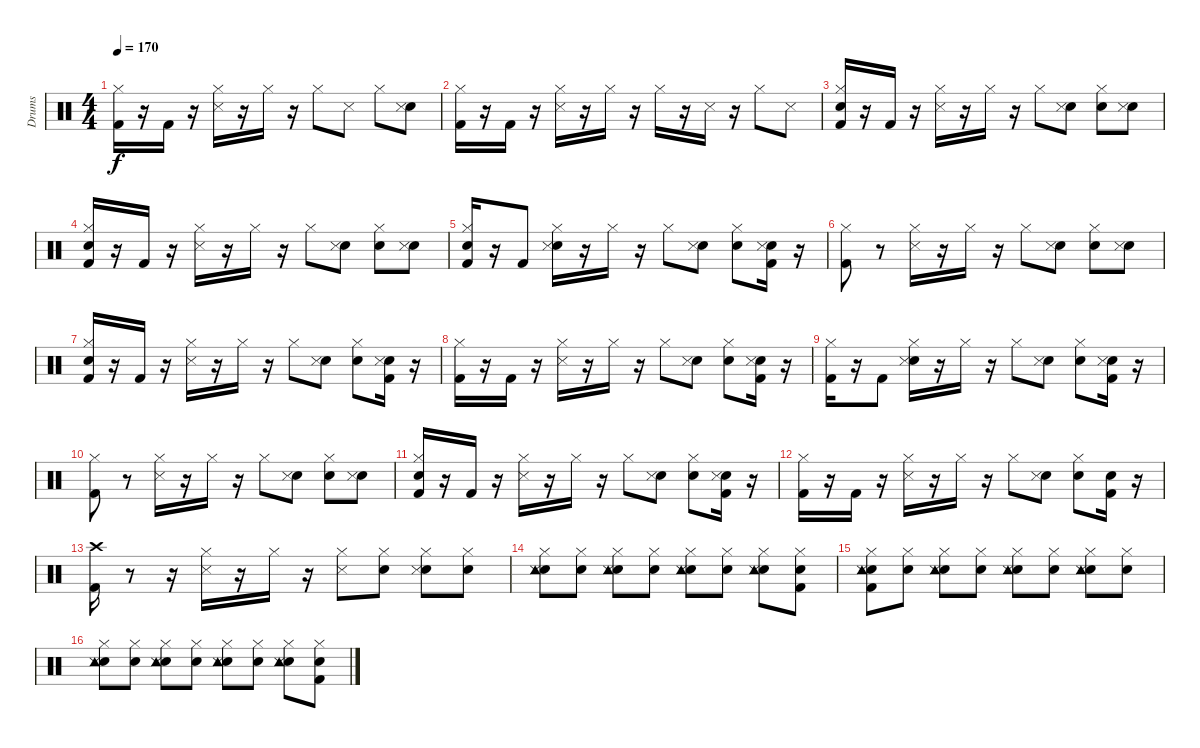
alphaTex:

\track ("Drums" "Drums") {instrument percussion}
\staff {score}
\articulation defaults
\ts (4 4)
\tempo 170
\clef neutral
\ks c
("Kick (hit) 2" "Hi-Hat (closed)").16{dy f} r.16 "Kick (hit) 2".16 r.16 ("Snare (side stick) 3" "Hi-Hat (closed)").16 r.16 "Hi-Hat (closed)".16 r.16 "Hi-Hat (closed)".8 "Snare (side stick) 3".8 "Hi-Hat (closed)".8 ("Snare (hit)" "Snare (side stick) 3").8 |
("Kick (hit) 2" "Hi-Hat (closed)").16 r.16 "Kick (hit) 2".16 r.16 ("Snare (side stick) 3" "Hi-Hat (closed)").16 r.16 "Hi-Hat (closed)".16 r.16 "Hi-Hat (closed)".16 r.16 "Snare (side stick) 3".16 r.16 "Hi-Hat (closed)".8 "Snare (side stick) 3".8 |
("Snare (hit)" "Kick (hit) 2" "Hi-Hat (closed)").16 r.16 "Kick (hit) 2".16 r.16 ("Snare (side stick) 3" "Hi-Hat (closed)").16 r.16 "Hi-Hat (closed)".16 r.16 "Hi-Hat (closed)".8 ("Snare (hit)" "Snare (side stick) 3").8 ("Snare (hit)" "Hi-Hat (closed)").8 ("Snare (hit)" "Snare (side stick) 3").8 |
("Snare (hit)" "Kick (hit) 2" "Hi-Hat (closed)").16 r.16 "Kick (hit) 2".16 r.16 ("Snare (side stick) 3" "Hi-Hat (closed)").16 r.16 "Hi-Hat (closed)".16 r.16 "Hi-Hat (closed)".8 ("Snare (hit)" "Snare (side stick) 3").8 ("Snare (hit)" "Hi-Hat (closed)").8 ("Snare (hit)" "Snare (side stick) 3").8 |
("Snare (hit)" "Kick (hit) 2" "Hi-Hat (closed)").16 r.16 "Kick (hit) 2".8 ("Snare (hit)" "Snare (side stick) 3" "Hi-Hat (closed)").16 r.16 "Hi-Hat (closed)".16 r.16 "Hi-Hat (closed)".8 ("Snare (hit)" "Snare (side stick) 3").8 ("Snare (hit)" "Hi-Hat (closed)").8 ("Snare (hit)" "Kick (hit) 2" "Snare (side stick) 3").16 r.16 |
("Kick (hit) 2" "Hi-Hat (closed)").8 r.8 ("Snare (side stick) 3" "Hi-Hat (closed)").16 r.16 "Hi-Hat (closed)".16 r.16 "Hi-Hat (closed)".8 ("Snare (hit)" "Snare (side stick) 3").8 ("Snare (hit)" "Hi-Hat (closed)").8 ("Snare (hit)" "Snare (side stick) 3").8 |
("Snare (hit)" "Kick (hit) 2" "Hi-Hat (closed)").16 r.16 "Kick (hit) 2".16 r.16 ("Snare (side stick) 3" "Hi-Hat (closed)").16 r.16 "Hi-Hat (closed)".16 r.16 "Hi-Hat (closed)".8 ("Snare (hit)" "Snare (side stick) 3").8 ("Snare (hit)" "Hi-Hat (closed)").8 ("Snare (hit)" "Kick (hit) 2" "Snare (side stick) 3").16 r.16 |
("Kick (hit) 2" "Hi-Hat (closed)").16 r.16 "Kick (hit) 2".16 r.16 ("Snare (side stick) 3" "Hi-Hat (closed)").16 r.16 "Hi-Hat (closed)".16 r.16 "Hi-Hat (closed)".8 ("Snare (hit)" "Snare (side stick) 3").8 ("Snare (hit)" "Hi-Hat (closed)").8 ("Snare (hit)" "Kick (hit) 2" "Snare (side stick) 3").16 r.16 |
("Kick (hit) 2" "Hi-Hat (closed)").16 r.16 "Kick (hit) 2".8 ("Snare (hit)" "Snare (side stick) 3" "Hi-Hat (closed)").16 r.16 "Hi-Hat (closed)".16 r.16 "Hi-Hat (closed)".8 ("Snare (hit)" "Snare (side stick) 3").8 ("Snare (hit)" "Hi-Hat (closed)").8 ("Snare (hit)" "Kick (hit) 2" "Snare (side stick) 3").16 r.16 |
("Kick (hit) 2" "Hi-Hat (closed)").8 r.8 ("Snare (side stick) 3" "Hi-Hat (closed)").16 r.16 "Hi-Hat (closed)".16 r.16 "Hi-Hat (closed)".8 ("Snare (hit)" "Snare (side stick) 3").8 ("Snare (hit)" "Hi-Hat (closed)").8 ("Snare (hit)" "Snare (side stick) 3").8 |
("Snare (hit)" "Kick (hit) 2" "Hi-Hat (closed)").16 r.16 "Kick (hit) 2".16 r.16 ("Snare (side stick) 3" "Hi-Hat (closed)").16 r.16 "Hi-Hat (closed)".16 r.16 "Hi-Hat (closed)".8 ("Snare (hit)" "Snare (side stick) 3").8 ("Snare (hit)" "Hi-Hat (closed)").8 ("Snare (hit)" "Kick (hit) 2" "Snare (side stick) 3").16 r.16 |
("Kick (hit) 2" "Hi-Hat (closed)").16 r.16 "Kick (hit) 2".16 r.16 ("Snare (side stick) 3" "Hi-Hat (closed)").16 r.16 "Hi-Hat (closed)".16 r.16 "Hi-Hat (closed)".8 ("Snare (hit)" "Snare (side stick) 3").8 ("Snare (hit)" "Hi-Hat (closed)").8 ("Snare (hit)" "Kick (hit) 2").16 r.16 |
("Kick (hit) 2" "Crash high (hit)").16 r.8 r.16 ("Snare (side stick) 3" "Hi-Hat (closed)").16 r.16 "Hi-Hat (closed)".16 r.16 ("Snare (side stick) 3" "Hi-Hat (closed)").8 ("Snare (hit)" "Hi-Hat (closed)").8 ("Snare (hit)" "Snare (side stick) 3" "Hi-Hat (closed)").8 ("Snare (hit)" "Hi-Hat (closed)").8 |
("Snare (hit)" "Snare (side stick) 3" "Hi-Hat (closed)" "Tambourine (hit)").8 ("Snare (hit)" "Hi-Hat (closed)").8 ("Snare (hit)" "Snare (side stick) 3" "Hi-Hat (closed)" "Tambourine (hit)").8 ("Snare (hit)" "Hi-Hat (closed)").8 ("Snare (hit)" "Snare (side stick) 3" "Hi-Hat (closed)" "Tambourine (hit)").8 ("Snare (hit)" "Hi-Hat (closed)").8 ("Snare (hit)" "Snare (side stick) 3" "Hi-Hat (closed)" "Tambourine (hit)").8 ("Snare (hit)" "Kick (hit) 2" "Hi-Hat (closed)").8 |
("Snare (hit)" "Kick (hit) 2" "Snare (side stick) 3" "Hi-Hat (closed)" "Tambourine (hit)").8 ("Snare (hit)" "Hi-Hat (closed)").8 ("Snare (hit)" "Snare (side stick) 3" "Hi-Hat (closed)" "Tambourine (hit)").8 ("Snare (hit)" "Hi-Hat (closed)").8 ("Snare (hit)" "Snare (side stick) 3" "Hi-Hat (closed)" "Tambourine (hit)").8 ("Snare (hit)" "Hi-Hat (closed)").8 ("Snare (hit)" "Snare (side stick) 3" "Hi-Hat (closed)" "Tambourine (hit)").8 ("Snare (hit)" "Hi-Hat (closed)").8 |
("Snare (hit)" "Snare (side stick) 3" "Hi-Hat (closed)" "Tambourine (hit)").8 ("Snare (hit)" "Hi-Hat (closed)").8 ("Snare (hit)" "Snare (side stick) 3" "Hi-Hat (closed)" "Tambourine (hit)").8 ("Snare (hit)" "Hi-Hat (closed)").8 ("Snare (hit)" "Snare (side stick) 3" "Hi-Hat (closed)" "Tambourine (hit)").8 ("Snare (hit)" "Hi-Hat (closed)").8 ("Snare (hit)" "Snare (side stick) 3" "Hi-Hat (closed)" "Tambourine (hit)").8 ("Snare (hit)" "Kick (hit) 2" "Hi-Hat (closed)").8
